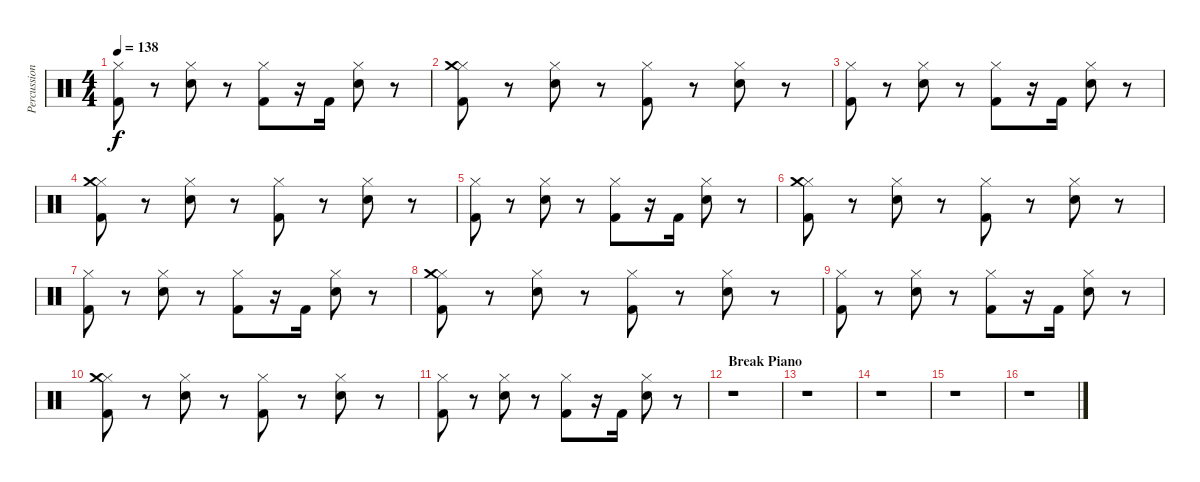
\track ("Percussions" "Percussion") {instrument percussion}
\staff {score}
\articulation defaults
\ts (4 4)
\tempo 138
\clef neutral
\ks c
("Hi-Hat (closed)" "Kick (hit) 2").8{dy f} r.8 ("Hi-Hat (closed)" "Electric Snare (hit)").8 r.8 ("Hi-Hat (closed)" "Kick (hit) 2").8 r.16 "Kick (hit) 2".16 ("Hi-Hat (closed)" "Electric Snare (hit)").8 r.8 |
("Hi-Hat (closed)" "Crash medium (hit)" "Kick (hit) 2").8 r.8 ("Hi-Hat (closed)" "Electric Snare (hit)").8 r.8 ("Hi-Hat (closed)" "Kick (hit) 2").8 r.8 ("Hi-Hat (closed)" "Electric Snare (hit)").8 r.8 |
("Hi-Hat (closed)" "Kick (hit) 2").8 r.8 ("Hi-Hat (closed)" "Electric Snare (hit)").8 r.8 ("Hi-Hat (closed)" "Kick (hit) 2").8 r.16 "Kick (hit) 2".16 ("Hi-Hat (closed)" "Electric Snare (hit)").8 r.8 |
("Hi-Hat (closed)" "Crash medium (hit)" "Kick (hit) 2").8 r.8 ("Hi-Hat (closed)" "Electric Snare (hit)").8 r.8 ("Hi-Hat (closed)" "Kick (hit) 2").8 r.8 ("Hi-Hat (closed)" "Electric Snare (hit)").8 r.8 |
("Hi-Hat (closed)" "Kick (hit) 2").8 r.8 ("Hi-Hat (closed)" "Electric Snare (hit)").8 r.8 ("Hi-Hat (closed)" "Kick (hit) 2").8 r.16 "Kick (hit) 2".16 ("Hi-Hat (closed)" "Electric Snare (hit)").8 r.8 |
("Hi-Hat (closed)" "Crash medium (hit)" "Kick (hit) 2").8 r.8 ("Hi-Hat (closed)" "Electric Snare (hit)").8 r.8 ("Hi-Hat (closed)" "Kick (hit) 2").8 r.8 ("Hi-Hat (closed)" "Electric Snare (hit)").8 r.8 |
("Hi-Hat (closed)" "Kick (hit) 2").8 r.8 ("Hi-Hat (closed)" "Electric Snare (hit)").8 r.8 ("Hi-Hat (closed)" "Kick (hit) 2").8 r.16 "Kick (hit) 2".16 ("Hi-Hat (closed)" "Electric Snare (hit)").8 r.8 |
("Hi-Hat (closed)" "Crash medium (hit)" "Kick (hit) 2").8 r.8 ("Hi-Hat (closed)" "Electric Snare (hit)").8 r.8 ("Hi-Hat (closed)" "Kick (hit) 2").8 r.8 ("Hi-Hat (closed)" "Electric Snare (hit)").8 r.8 |
("Hi-Hat (closed)" "Kick (hit) 2").8 r.8 ("Hi-Hat (closed)" "Electric Snare (hit)").8 r.8 ("Hi-Hat (closed)" "Kick (hit) 2").8 r.16 "Kick (hit) 2".16 ("Hi-Hat (closed)" "Electric Snare (hit)").8 r.8 |
("Hi-Hat (closed)" "Crash medium (hit)" "Kick (hit) 2").8 r.8 ("Hi-Hat (closed)" "Electric Snare (hit)").8 r.8 ("Hi-Hat (closed)" "Kick (hit) 2").8 r.8 ("Hi-Hat (closed)" "Electric Snare (hit)").8 r.8 |
("Hi-Hat (closed)" "Kick (hit) 2").8 r.8 ("Hi-Hat (closed)" "Electric Snare (hit)").8 r.8 ("Hi-Hat (closed)" "Kick (hit) 2").8 r.16 "Kick (hit) 2".16 ("Hi-Hat (closed)" "Electric Snare (hit)").8 r.8 |
\section ("" "Break Piano")
r.1 |
r.1 |
r.1 |
r.1 |
r.1
